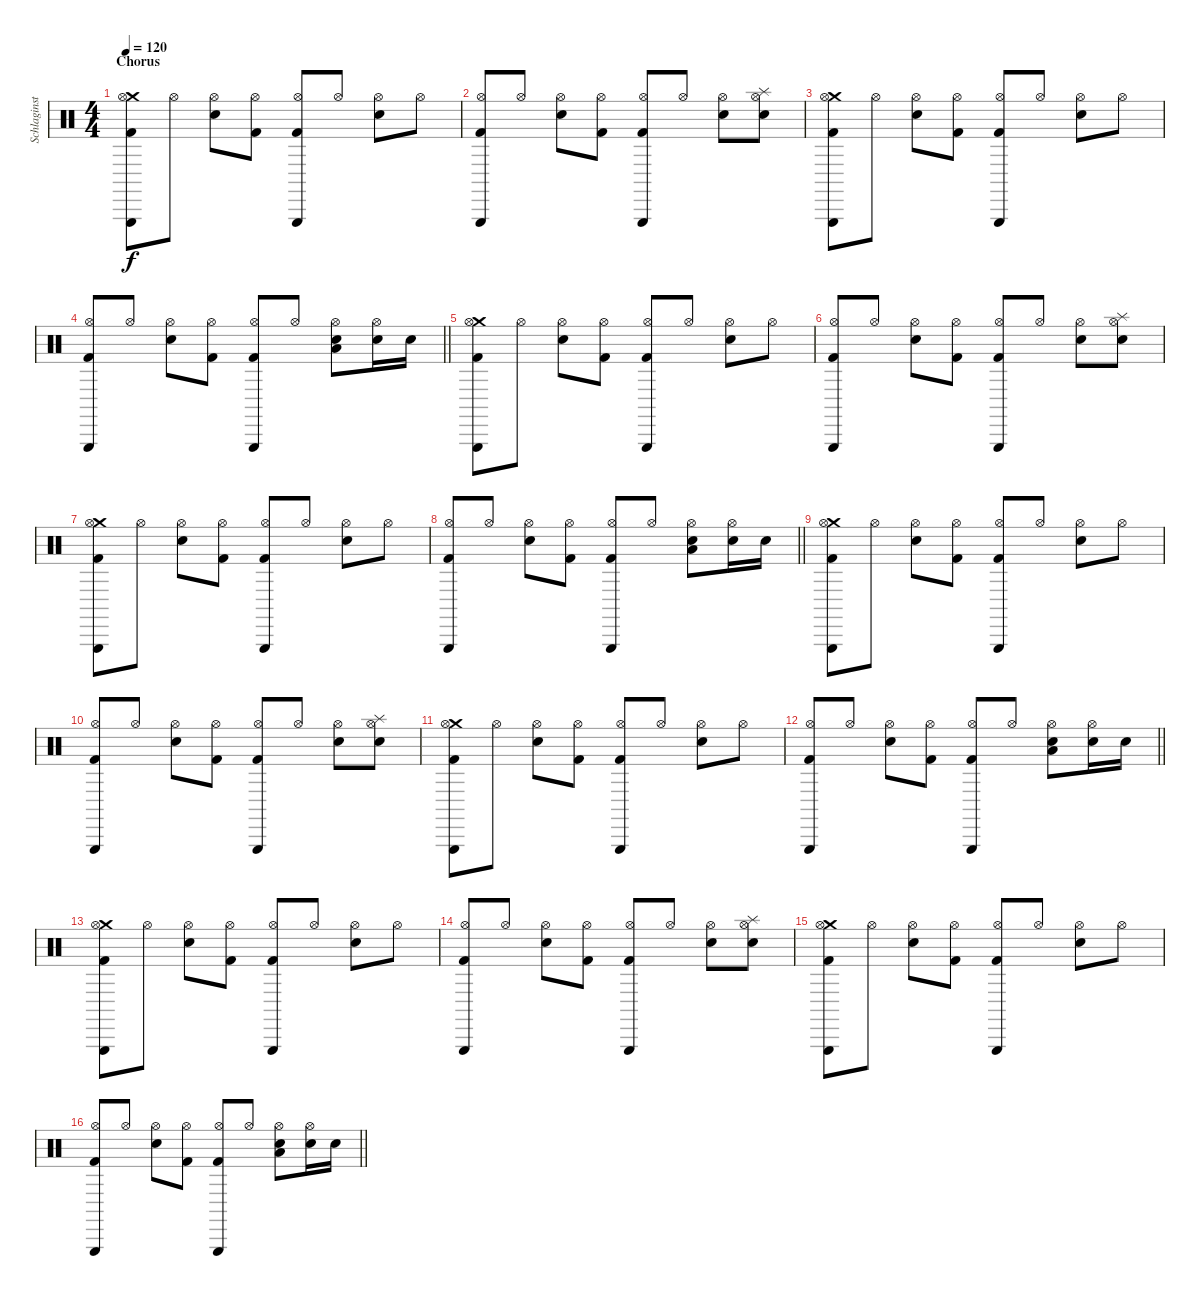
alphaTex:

\track ("Schlaginstrumente - Auswahl" "Schlaginst") {instrument percussion}
\staff {score}
\articulation defaults
\ts (4 4)
\section ("" "Chorus")
\tempo 120
\clef neutral
\ks c
("Crash medium (hit)" "Triangle (hit)" "Hi-Hat (open)" "Kick (hit) 2").8{dy f} "Hi-Hat (open)".8 ("Hi-Hat (open)" "Snare (hit) 2").8 ("Hi-Hat (open)" "Kick (hit) 2").8 ("Triangle (hit)" "Hi-Hat (open)" "Kick (hit) 2").8 "Hi-Hat (open)".8 ("Hi-Hat (open)" "Snare (hit) 2").8 "Hi-Hat (open)".8 |
("Triangle (hit)" "Hi-Hat (open)" "Kick (hit) 2").8 "Hi-Hat (open)".8 ("Hi-Hat (open)" "Snare (hit) 2").8 ("Hi-Hat (open)" "Kick (hit) 2").8 ("Triangle (hit)" "Hi-Hat (open)" "Kick (hit) 2").8 "Hi-Hat (open)".8 ("Hi-Hat (open)" "Snare (hit) 2").8 ("Splash (hit)" "Hi-Hat (open)" "Snare (hit) 2").8 |
("Crash medium (hit)" "Triangle (hit)" "Hi-Hat (open)" "Kick (hit) 2").8 "Hi-Hat (open)".8 ("Hi-Hat (open)" "Snare (hit) 2").8 ("Hi-Hat (open)" "Kick (hit) 2").8 ("Triangle (hit)" "Hi-Hat (open)" "Kick (hit) 2").8 "Hi-Hat (open)".8 ("Hi-Hat (open)" "Snare (hit) 2").8 "Hi-Hat (open)".8 |
\barLineRight lightlight
("Triangle (hit)" "Hi-Hat (open)" "Kick (hit) 2").8 "Hi-Hat (open)".8 ("Hi-Hat (open)" "Snare (hit) 2").8 ("Hi-Hat (open)" "Kick (hit) 2").8 ("Triangle (hit)" "Hi-Hat (open)" "Kick (hit) 2").8 "Hi-Hat (open)".8 ("Low Tom (hit)" "Hi-Hat (open)" "Snare (hit) 2").8 ("Hi-Hat (open)" "Snare (hit) 2").16 "Snare (hit) 2".16 |
("Crash medium (hit)" "Triangle (hit)" "Hi-Hat (open)" "Kick (hit) 2").8 "Hi-Hat (open)".8 ("Hi-Hat (open)" "Snare (hit) 2").8 ("Hi-Hat (open)" "Kick (hit) 2").8 ("Triangle (hit)" "Hi-Hat (open)" "Kick (hit) 2").8 "Hi-Hat (open)".8 ("Hi-Hat (open)" "Snare (hit) 2").8 "Hi-Hat (open)".8 |
("Triangle (hit)" "Hi-Hat (open)" "Kick (hit) 2").8 "Hi-Hat (open)".8 ("Hi-Hat (open)" "Snare (hit) 2").8 ("Hi-Hat (open)" "Kick (hit) 2").8 ("Triangle (hit)" "Hi-Hat (open)" "Kick (hit) 2").8 "Hi-Hat (open)".8 ("Hi-Hat (open)" "Snare (hit) 2").8 ("Splash (hit)" "Hi-Hat (open)" "Snare (hit) 2").8 |
("Crash medium (hit)" "Triangle (hit)" "Hi-Hat (open)" "Kick (hit) 2").8 "Hi-Hat (open)".8 ("Hi-Hat (open)" "Snare (hit) 2").8 ("Hi-Hat (open)" "Kick (hit) 2").8 ("Triangle (hit)" "Hi-Hat (open)" "Kick (hit) 2").8 "Hi-Hat (open)".8 ("Hi-Hat (open)" "Snare (hit) 2").8 "Hi-Hat (open)".8 |
\barLineRight lightlight
("Triangle (hit)" "Hi-Hat (open)" "Kick (hit) 2").8 "Hi-Hat (open)".8 ("Hi-Hat (open)" "Snare (hit) 2").8 ("Hi-Hat (open)" "Kick (hit) 2").8 ("Triangle (hit)" "Hi-Hat (open)" "Kick (hit) 2").8 "Hi-Hat (open)".8 ("Low Tom (hit)" "Hi-Hat (open)" "Snare (hit) 2").8 ("Hi-Hat (open)" "Snare (hit) 2").16 "Snare (hit) 2".16 |
("Crash medium (hit)" "Triangle (hit)" "Hi-Hat (open)" "Kick (hit) 2").8 "Hi-Hat (open)".8 ("Hi-Hat (open)" "Snare (hit) 2").8 ("Hi-Hat (open)" "Kick (hit) 2").8 ("Triangle (hit)" "Hi-Hat (open)" "Kick (hit) 2").8 "Hi-Hat (open)".8 ("Hi-Hat (open)" "Snare (hit) 2").8 "Hi-Hat (open)".8 |
("Triangle (hit)" "Hi-Hat (open)" "Kick (hit) 2").8 "Hi-Hat (open)".8 ("Hi-Hat (open)" "Snare (hit) 2").8 ("Hi-Hat (open)" "Kick (hit) 2").8 ("Triangle (hit)" "Hi-Hat (open)" "Kick (hit) 2").8 "Hi-Hat (open)".8 ("Hi-Hat (open)" "Snare (hit) 2").8 ("Splash (hit)" "Hi-Hat (open)" "Snare (hit) 2").8 |
("Crash medium (hit)" "Triangle (hit)" "Hi-Hat (open)" "Kick (hit) 2").8 "Hi-Hat (open)".8 ("Hi-Hat (open)" "Snare (hit) 2").8 ("Hi-Hat (open)" "Kick (hit) 2").8 ("Triangle (hit)" "Hi-Hat (open)" "Kick (hit) 2").8 "Hi-Hat (open)".8 ("Hi-Hat (open)" "Snare (hit) 2").8 "Hi-Hat (open)".8 |
\barLineRight lightlight
("Triangle (hit)" "Hi-Hat (open)" "Kick (hit) 2").8 "Hi-Hat (open)".8 ("Hi-Hat (open)" "Snare (hit) 2").8 ("Hi-Hat (open)" "Kick (hit) 2").8 ("Triangle (hit)" "Hi-Hat (open)" "Kick (hit) 2").8 "Hi-Hat (open)".8 ("Low Tom (hit)" "Hi-Hat (open)" "Snare (hit) 2").8 ("Hi-Hat (open)" "Snare (hit) 2").16 "Snare (hit) 2".16 |
("Crash medium (hit)" "Triangle (hit)" "Hi-Hat (open)" "Kick (hit) 2").8 "Hi-Hat (open)".8 ("Hi-Hat (open)" "Snare (hit) 2").8 ("Hi-Hat (open)" "Kick (hit) 2").8 ("Triangle (hit)" "Hi-Hat (open)" "Kick (hit) 2").8 "Hi-Hat (open)".8 ("Hi-Hat (open)" "Snare (hit) 2").8 "Hi-Hat (open)".8 |
("Triangle (hit)" "Hi-Hat (open)" "Kick (hit) 2").8 "Hi-Hat (open)".8 ("Hi-Hat (open)" "Snare (hit) 2").8 ("Hi-Hat (open)" "Kick (hit) 2").8 ("Triangle (hit)" "Hi-Hat (open)" "Kick (hit) 2").8 "Hi-Hat (open)".8 ("Hi-Hat (open)" "Snare (hit) 2").8 ("Splash (hit)" "Hi-Hat (open)" "Snare (hit) 2").8 |
("Crash medium (hit)" "Triangle (hit)" "Hi-Hat (open)" "Kick (hit) 2").8 "Hi-Hat (open)".8 ("Hi-Hat (open)" "Snare (hit) 2").8 ("Hi-Hat (open)" "Kick (hit) 2").8 ("Triangle (hit)" "Hi-Hat (open)" "Kick (hit) 2").8 "Hi-Hat (open)".8 ("Hi-Hat (open)" "Snare (hit) 2").8 "Hi-Hat (open)".8 |
\barLineRight lightlight
("Triangle (hit)" "Hi-Hat (open)" "Kick (hit) 2").8 "Hi-Hat (open)".8 ("Hi-Hat (open)" "Snare (hit) 2").8 ("Hi-Hat (open)" "Kick (hit) 2").8 ("Triangle (hit)" "Hi-Hat (open)" "Kick (hit) 2").8 "Hi-Hat (open)".8 ("Low Tom (hit)" "Hi-Hat (open)" "Snare (hit) 2").8 ("Hi-Hat (open)" "Snare (hit) 2").16 "Snare (hit) 2".16
